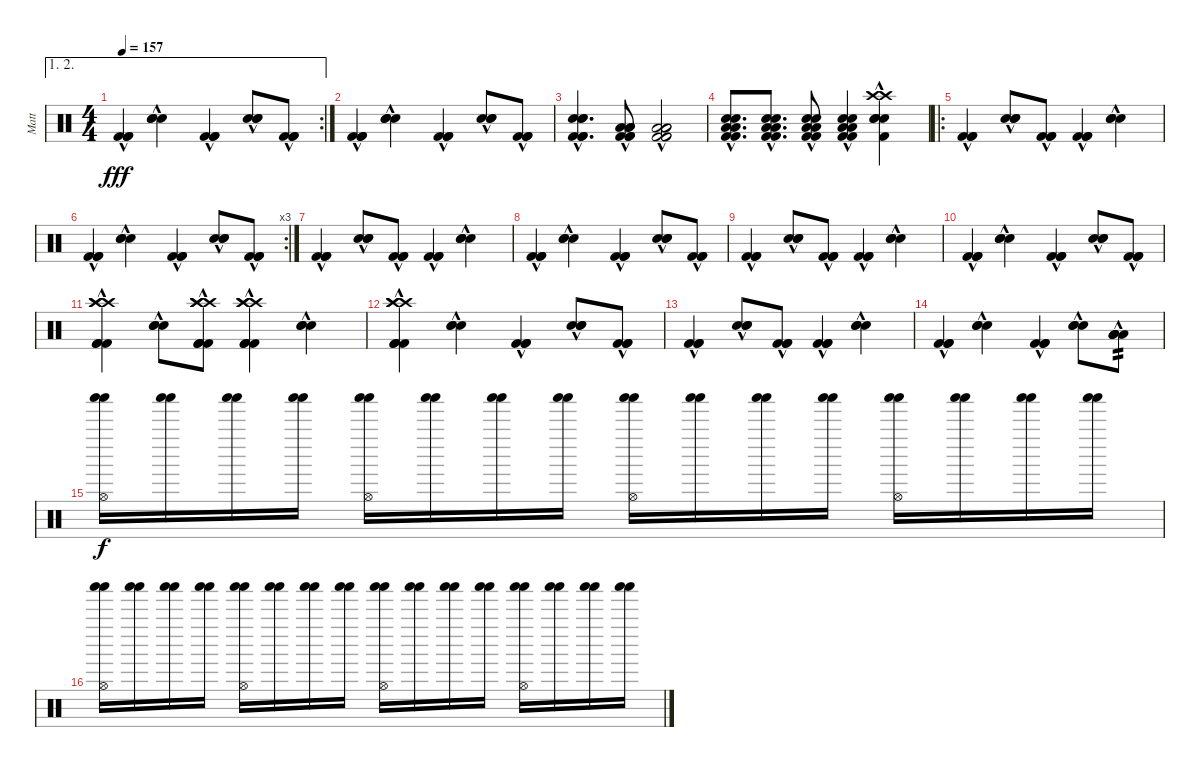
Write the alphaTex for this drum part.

\track ("Matt" "Matt") {instrument percussion}
\staff {score}
\articulation defaults
\ae (1 2)
\rc 2
\ts (4 4)
\tempo 157
\clef neutral
\ks c
("Kick (hit) 2"{hac} "Kick (hit) 2"{hac} "Kick (hit) 2"{hac}).4{dy fff} ("Snare (hit) 2"{hac} "Snare (hit) 2"{hac} "Snare (hit) 2"{hac}).4 ("Kick (hit) 2"{hac} "Kick (hit) 2"{hac} "Kick (hit) 2"{hac}).4 ("Snare (hit) 2"{hac} "Snare (hit) 2"{hac} "Snare (hit) 2"{hac}).8 ("Kick (hit) 2"{hac} "Kick (hit) 2"{hac} "Kick (hit) 2"{hac}).8 |
("Kick (hit) 2"{hac} "Kick (hit) 2"{hac} "Kick (hit) 2"{hac}).4 ("Snare (hit) 2"{hac} "Snare (hit) 2"{hac} "Snare (hit) 2"{hac}).4 ("Kick (hit) 2"{hac} "Kick (hit) 2"{hac} "Kick (hit) 2"{hac}).4 ("Snare (hit) 2"{hac} "Snare (hit) 2"{hac} "Snare (hit) 2"{hac}).8 ("Kick (hit) 2"{hac} "Kick (hit) 2"{hac} "Kick (hit) 2"{hac}).8 |
("Kick (hit) 2"{hac} "Kick (hit) 2"{hac} "Kick (hit) 2"{hac} "Snare (hit) 2"{hac} "Snare (hit) 2"{hac} "Snare (hit) 2"{hac}).4{d} ("Kick (hit) 2"{hac} "Kick (hit) 2"{hac} "Kick (hit) 2"{hac} "Low Tom (hit)"{hac} "Low Tom (hit)"{hac} "Low Tom (hit)"{hac}).8 ("Kick (hit) 2"{hac} "Kick (hit) 2"{hac} "Kick (hit) 2"{hac} "Low Tom (hit)"{hac} "Low Tom (hit)"{hac} "Low Tom (hit)"{hac}).2 |
("Kick (hit) 2"{hac} "Kick (hit) 2"{hac} "Snare (hit) 2"{hac} "Snare (hit) 2"{hac} "Low Tom (hit)"{hac} "Low Tom (hit)"{hac}).8{d} ("Kick (hit) 2"{hac} "Kick (hit) 2"{hac} "Snare (hit) 2"{hac} "Snare (hit) 2"{hac} "Low Tom (hit)"{hac} "Low Tom (hit)"{hac}).8{d} ("Kick (hit) 2"{hac} "Kick (hit) 2"{hac} "Snare (hit) 2"{hac} "Snare (hit) 2"{hac} "Low Tom (hit)"{hac} "Low Tom (hit)"{hac}).8 ("Kick (hit) 2"{hac} "Kick (hit) 2"{hac} "Snare (hit) 2"{hac} "Snare (hit) 2"{hac} "Low Tom (hit)"{hac} "Low Tom (hit)"{hac}).4 ("Crash high (hit)"{hac} "Crash high (hit)"{hac} "Snare (hit) 2"{hac} "Snare (hit) 2"{hac} "Snare (hit) 2"{hac} "Kick (hit) 2"{hac}).4 |
\ro
("Kick (hit) 2"{hac} "Kick (hit) 2"{hac} "Kick (hit) 2"{hac}).4 ("Snare (hit) 2"{hac} "Snare (hit) 2"{hac} "Snare (hit) 2"{hac}).8 ("Kick (hit) 2"{hac} "Kick (hit) 2"{hac} "Kick (hit) 2"{hac}).8 ("Kick (hit) 2"{hac} "Kick (hit) 2"{hac} "Kick (hit) 2"{hac}).4 ("Snare (hit) 2"{hac} "Snare (hit) 2"{hac} "Snare (hit) 2"{hac}).4 |
\rc 3
("Kick (hit) 2"{hac} "Kick (hit) 2"{hac} "Kick (hit) 2"{hac}).4 ("Snare (hit) 2"{hac} "Snare (hit) 2"{hac} "Snare (hit) 2"{hac}).4 ("Kick (hit) 2"{hac} "Kick (hit) 2"{hac} "Kick (hit) 2"{hac}).4 ("Snare (hit) 2"{hac} "Snare (hit) 2"{hac} "Snare (hit) 2"{hac}).8 ("Kick (hit) 2"{hac} "Kick (hit) 2"{hac} "Kick (hit) 2"{hac}).8 |
("Kick (hit) 2"{hac} "Kick (hit) 2"{hac} "Kick (hit) 2"{hac}).4 ("Snare (hit) 2"{hac} "Snare (hit) 2"{hac} "Snare (hit) 2"{hac}).8 ("Kick (hit) 2"{hac} "Kick (hit) 2"{hac} "Kick (hit) 2"{hac}).8 ("Kick (hit) 2"{hac} "Kick (hit) 2"{hac} "Kick (hit) 2"{hac}).4 ("Snare (hit) 2"{hac} "Snare (hit) 2"{hac} "Snare (hit) 2"{hac}).4 |
("Kick (hit) 2"{hac} "Kick (hit) 2"{hac} "Kick (hit) 2"{hac}).4 ("Snare (hit) 2"{hac} "Snare (hit) 2"{hac} "Snare (hit) 2"{hac}).4 ("Kick (hit) 2"{hac} "Kick (hit) 2"{hac} "Kick (hit) 2"{hac}).4 ("Snare (hit) 2"{hac} "Snare (hit) 2"{hac} "Snare (hit) 2"{hac}).8 ("Kick (hit) 2"{hac} "Kick (hit) 2"{hac} "Kick (hit) 2"{hac}).8 |
("Kick (hit) 2"{hac} "Kick (hit) 2"{hac} "Kick (hit) 2"{hac}).4 ("Snare (hit) 2"{hac} "Snare (hit) 2"{hac} "Snare (hit) 2"{hac}).8 ("Kick (hit) 2"{hac} "Kick (hit) 2"{hac} "Kick (hit) 2"{hac}).8 ("Kick (hit) 2"{hac} "Kick (hit) 2"{hac} "Kick (hit) 2"{hac}).4 ("Snare (hit) 2"{hac} "Snare (hit) 2"{hac} "Snare (hit) 2"{hac}).4 |
("Kick (hit) 2"{hac} "Kick (hit) 2"{hac} "Kick (hit) 2"{hac}).4 ("Snare (hit) 2"{hac} "Snare (hit) 2"{hac} "Snare (hit) 2"{hac}).4 ("Kick (hit) 2"{hac} "Kick (hit) 2"{hac} "Kick (hit) 2"{hac}).4 ("Snare (hit) 2"{hac} "Snare (hit) 2"{hac} "Snare (hit) 2"{hac}).8 ("Kick (hit) 2"{hac} "Kick (hit) 2"{hac} "Kick (hit) 2"{hac}).8 |
("Crash high (hit)"{hac} "Crash high (hit)"{hac} "Crash high (hit)"{hac} "Kick (hit) 2"{hac} "Kick (hit) 2"{hac} "Kick (hit) 2"{hac}).4 ("Snare (hit) 2"{hac} "Snare (hit) 2"{hac} "Snare (hit) 2"{hac}).8 ("Crash high (hit)"{hac} "Crash high (hit)"{hac} "Crash high (hit)"{hac} "Kick (hit) 2"{hac} "Kick (hit) 2"{hac} "Kick (hit) 2"{hac}).8 ("Crash high (hit)"{hac} "Crash high (hit)"{hac} "Crash high (hit)"{hac} "Kick (hit) 2"{hac} "Kick (hit) 2"{hac} "Kick (hit) 2"{hac}).4 ("Snare (hit) 2"{hac} "Snare (hit) 2"{hac} "Snare (hit) 2"{hac}).4 |
("Crash high (hit)"{hac} "Crash high (hit)"{hac} "Crash high (hit)"{hac} "Kick (hit) 2"{hac} "Kick (hit) 2"{hac} "Kick (hit) 2"{hac}).4 ("Snare (hit) 2"{hac} "Snare (hit) 2"{hac} "Snare (hit) 2"{hac}).4 ("Kick (hit) 2"{hac} "Kick (hit) 2"{hac} "Kick (hit) 2"{hac}).4 ("Snare (hit) 2"{hac} "Snare (hit) 2"{hac} "Snare (hit) 2"{hac}).8 ("Kick (hit) 2"{hac} "Kick (hit) 2"{hac} "Kick (hit) 2"{hac}).8 |
("Kick (hit) 2"{hac} "Kick (hit) 2"{hac} "Kick (hit) 2"{hac}).4 ("Snare (hit) 2"{hac} "Snare (hit) 2"{hac} "Snare (hit) 2"{hac}).8 ("Kick (hit) 2"{hac} "Kick (hit) 2"{hac} "Kick (hit) 2"{hac}).8 ("Kick (hit) 2"{hac} "Kick (hit) 2"{hac} "Kick (hit) 2"{hac}).4 ("Snare (hit) 2"{hac} "Snare (hit) 2"{hac} "Snare (hit) 2"{hac}).4 |
("Kick (hit) 2"{hac} "Kick (hit) 2"{hac} "Kick (hit) 2"{hac}).4 ("Snare (hit) 2"{hac} "Snare (hit) 2"{hac} "Snare (hit) 2"{hac}).4 ("Kick (hit) 2"{hac} "Kick (hit) 2"{hac} "Kick (hit) 2"{hac}).4 ("Snare (hit) 2"{hac} "Snare (hit) 2"{hac} "Snare (hit) 2"{hac}).8 ("Low Tom (hit)"{hac} "Low Tom (hit)"{hac} "Low Tom (hit)"{hac} "Low Tom (hit)"{hac}).8{tp 2} |
("Shaker (hit)" "Shaker (hit)" "Hi-Hat (open)").16{dy f} ("Shaker (hit)" "Shaker (hit)").16 ("Shaker (hit)" "Shaker (hit)").16 ("Shaker (hit)" "Shaker (hit)").16 ("Shaker (hit)" "Shaker (hit)" "Hi-Hat (open)").16 ("Shaker (hit)" "Shaker (hit)").16 ("Shaker (hit)" "Shaker (hit)").16 ("Shaker (hit)" "Shaker (hit)").16 ("Shaker (hit)" "Shaker (hit)" "Hi-Hat (open)").16 ("Shaker (hit)" "Shaker (hit)").16 ("Shaker (hit)" "Shaker (hit)").16 ("Shaker (hit)" "Shaker (hit)").16 ("Shaker (hit)" "Shaker (hit)" "Hi-Hat (open)").16 ("Shaker (hit)" "Shaker (hit)").16 ("Shaker (hit)" "Shaker (hit)").16 ("Shaker (hit)" "Shaker (hit)").16 |
("Shaker (hit)" "Shaker (hit)" "Hi-Hat (open)").16 ("Shaker (hit)" "Shaker (hit)").16 ("Shaker (hit)" "Shaker (hit)").16 ("Shaker (hit)" "Shaker (hit)").16 ("Shaker (hit)" "Shaker (hit)" "Hi-Hat (open)").16 ("Shaker (hit)" "Shaker (hit)").16 ("Shaker (hit)" "Shaker (hit)").16 ("Shaker (hit)" "Shaker (hit)").16 ("Shaker (hit)" "Shaker (hit)" "Hi-Hat (open)").16 ("Shaker (hit)" "Shaker (hit)").16 ("Shaker (hit)" "Shaker (hit)").16 ("Shaker (hit)" "Shaker (hit)").16 ("Shaker (hit)" "Shaker (hit)" "Hi-Hat (open)").16 ("Shaker (hit)" "Shaker (hit)").16 ("Shaker (hit)" "Shaker (hit)").16 ("Shaker (hit)" "Shaker (hit)").16
